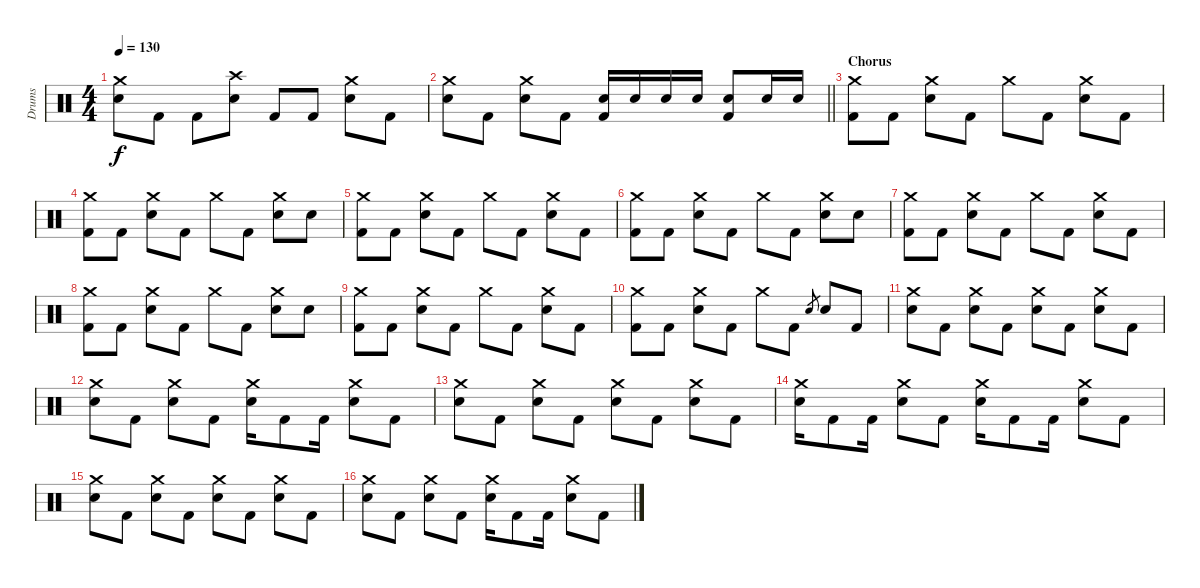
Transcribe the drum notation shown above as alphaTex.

\track ("Drums" "Drums") {instrument percussion}
\staff {score}
\articulation defaults
\ts (4 4)
\tempo 130
\clef neutral
\ks c
("Crash medium (hit)" "Electric Snare (hit)").8{dy f} "Kick (hit) 2".8 "Kick (hit) 2".8 ("Crash high (hit)" "Electric Snare (hit)").8 "Kick (hit) 2".8 "Kick (hit) 2".8 ("Crash medium (hit)" "Electric Snare (hit)").8 "Kick (hit) 2".8 |
\barLineRight lightlight
("Crash medium (hit)" "Electric Snare (hit)").8 "Kick (hit) 2".8 ("Crash medium (hit)" "Electric Snare (hit)").8 "Kick (hit) 2".8 ("Electric Snare (hit)" "Kick (hit) 2").16 "Electric Snare (hit)".16 "Electric Snare (hit)".16 "Electric Snare (hit)".16 ("Electric Snare (hit)" "Kick (hit) 2").8 "Electric Snare (hit)".16 "Electric Snare (hit)".16 |
\section ("" "Chorus")
("Crash medium (hit)" "Kick (hit) 2").8 "Kick (hit) 2".8 ("Crash medium (hit)" "Electric Snare (hit)").8 "Kick (hit) 2".8 "Crash medium (hit)".8 "Kick (hit) 2".8 ("Crash medium (hit)" "Electric Snare (hit)").8 "Kick (hit) 2".8 |
("Crash medium (hit)" "Kick (hit) 2").8 "Kick (hit) 2".8 ("Crash medium (hit)" "Electric Snare (hit)").8 "Kick (hit) 2".8 "Crash medium (hit)".8 "Kick (hit) 2".8 ("Crash medium (hit)" "Electric Snare (hit)").8 "Electric Snare (hit)".8 |
("Crash medium (hit)" "Kick (hit) 2").8 "Kick (hit) 2".8 ("Crash medium (hit)" "Electric Snare (hit)").8 "Kick (hit) 2".8 "Crash medium (hit)".8 "Kick (hit) 2".8 ("Crash medium (hit)" "Electric Snare (hit)").8 "Kick (hit) 2".8 |
("Crash medium (hit)" "Kick (hit) 2").8 "Kick (hit) 2".8 ("Crash medium (hit)" "Electric Snare (hit)").8 "Kick (hit) 2".8 "Crash medium (hit)".8 "Kick (hit) 2".8 ("Crash medium (hit)" "Electric Snare (hit)").8 "Electric Snare (hit)".8 |
("Crash medium (hit)" "Kick (hit) 2").8 "Kick (hit) 2".8 ("Crash medium (hit)" "Electric Snare (hit)").8 "Kick (hit) 2".8 "Crash medium (hit)".8 "Kick (hit) 2".8 ("Crash medium (hit)" "Electric Snare (hit)").8 "Kick (hit) 2".8 |
("Crash medium (hit)" "Kick (hit) 2").8 "Kick (hit) 2".8 ("Crash medium (hit)" "Electric Snare (hit)").8 "Kick (hit) 2".8 "Crash medium (hit)".8 "Kick (hit) 2".8 ("Crash medium (hit)" "Electric Snare (hit)").8 "Electric Snare (hit)".8 |
("Crash medium (hit)" "Kick (hit) 2").8 "Kick (hit) 2".8 ("Crash medium (hit)" "Electric Snare (hit)").8 "Kick (hit) 2".8 "Crash medium (hit)".8 "Kick (hit) 2".8 ("Crash medium (hit)" "Electric Snare (hit)").8 "Kick (hit) 2".8 |
("Crash medium (hit)" "Kick (hit) 2").8 "Kick (hit) 2".8 ("Crash medium (hit)" "Electric Snare (hit)").8 "Kick (hit) 2".8 "Crash medium (hit)".8 "Kick (hit) 2".8 "Electric Snare (hit)".8{gr} "Electric Snare (hit)".8 "Kick (hit) 2".8 |
("Crash medium (hit)" "Electric Snare (hit)").8 "Kick (hit) 2".8 ("Crash medium (hit)" "Electric Snare (hit)").8 "Kick (hit) 2".8 ("Crash medium (hit)" "Electric Snare (hit)").8 "Kick (hit) 2".8 ("Crash medium (hit)" "Electric Snare (hit)").8 "Kick (hit) 2".8 |
("Crash medium (hit)" "Electric Snare (hit)").8 "Kick (hit) 2".8 ("Crash medium (hit)" "Electric Snare (hit)").8 "Kick (hit) 2".8 ("Crash medium (hit)" "Electric Snare (hit)").16 "Kick (hit) 2".8 "Kick (hit) 2".16 ("Crash medium (hit)" "Electric Snare (hit)").8 "Kick (hit) 2".8 |
("Crash medium (hit)" "Electric Snare (hit)").8 "Kick (hit) 2".8 ("Crash medium (hit)" "Electric Snare (hit)").8 "Kick (hit) 2".8 ("Crash medium (hit)" "Electric Snare (hit)").8 "Kick (hit) 2".8 ("Crash medium (hit)" "Electric Snare (hit)").8 "Kick (hit) 2".8 |
("Crash medium (hit)" "Electric Snare (hit)").16 "Kick (hit) 2".8 "Kick (hit) 2".16 ("Crash medium (hit)" "Electric Snare (hit)").8 "Kick (hit) 2".8 ("Crash medium (hit)" "Electric Snare (hit)").16 "Kick (hit) 2".8 "Kick (hit) 2".16 ("Crash medium (hit)" "Electric Snare (hit)").8 "Kick (hit) 2".8 |
("Crash medium (hit)" "Electric Snare (hit)").8 "Kick (hit) 2".8 ("Crash medium (hit)" "Electric Snare (hit)").8 "Kick (hit) 2".8 ("Crash medium (hit)" "Electric Snare (hit)").8 "Kick (hit) 2".8 ("Crash medium (hit)" "Electric Snare (hit)").8 "Kick (hit) 2".8 |
("Crash medium (hit)" "Electric Snare (hit)").8 "Kick (hit) 2".8 ("Crash medium (hit)" "Electric Snare (hit)").8 "Kick (hit) 2".8 ("Crash medium (hit)" "Electric Snare (hit)").16 "Kick (hit) 2".8 "Kick (hit) 2".16 ("Crash medium (hit)" "Electric Snare (hit)").8 "Kick (hit) 2".8
